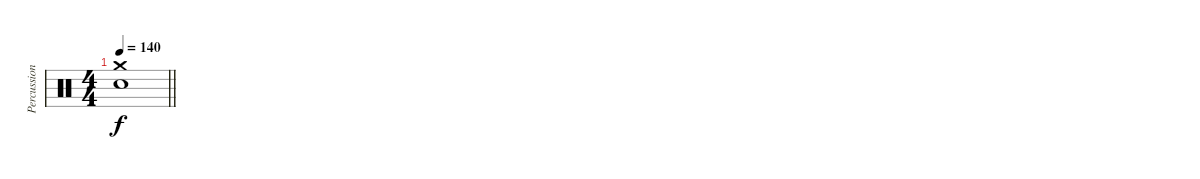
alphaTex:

\track ("Percussion" "Percussion") {instrument percussion}
\staff {score}
\articulation defaults
\ts (4 4)
\tempo 140
\clef neutral
\barLineRight lightlight
\ks c
("Crash medium (hit)" "Snare (hit) 2").1{dy f}
